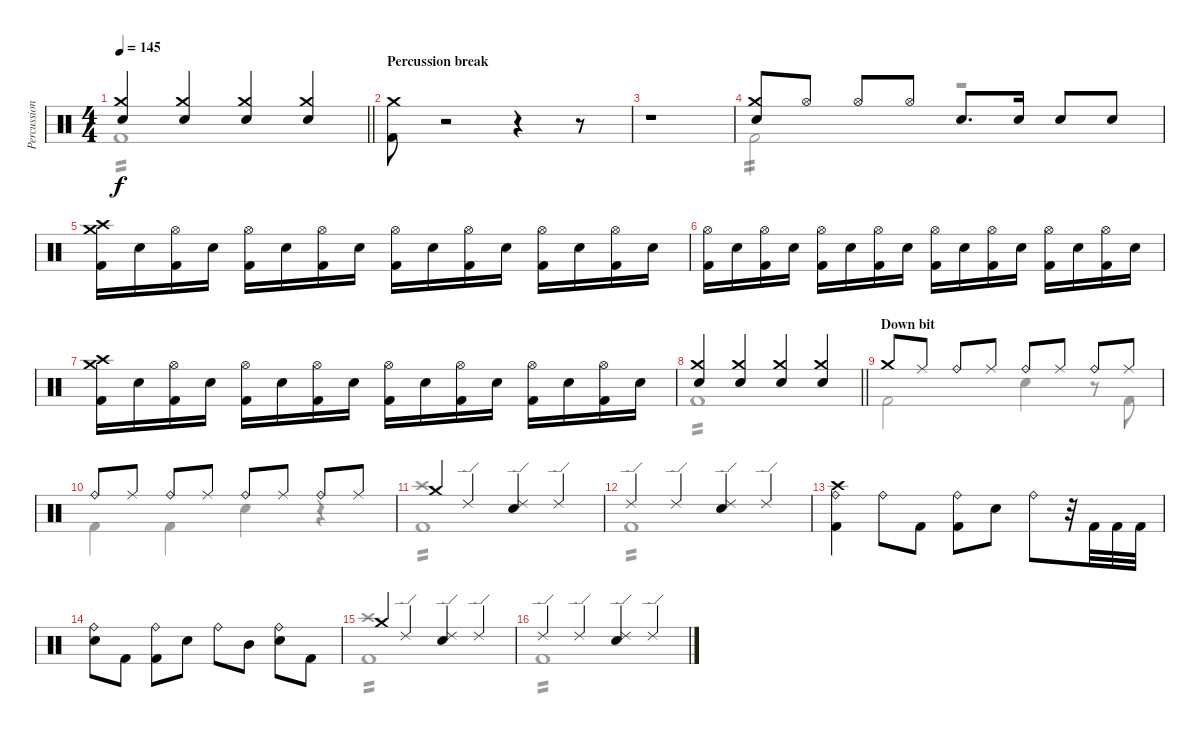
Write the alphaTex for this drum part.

\track ("Percussion" "Percussion") {instrument percussion}
\staff {score}
\articulation defaults
\voice
\ts (4 4)
\tempo 145
\clef neutral
\barLineRight lightlight
\ks c
("Crash medium (hit)" "Electric Snare (hit)").4{dy f} ("Crash medium (hit)" "Electric Snare (hit)").4 ("Crash medium (hit)" "Electric Snare (hit)").4 ("Crash medium (hit)" "Electric Snare (hit)").4 |
\section ("" "Percussion break")
("Crash medium (hit)" "Kick (hit) 2").8{volume 13} r.2{volume 0} r.4{volume 13} r.8 |
r.1 |
("Crash medium (hit)" "Electric Snare (hit)").8 "Hi-Hat (open)".8 "Hi-Hat (open)".8 "Hi-Hat (open)".8 "Electric Snare (hit)".8{d} "Electric Snare (hit)".16 "Electric Snare (hit)".8 "Electric Snare (hit)".8 |
("Crash medium (hit)" "Crash high (hit)" "Kick (hit) 2").16 "Electric Snare (hit)".16 ("Hi-Hat (open)" "Kick (hit) 2").16 "Electric Snare (hit)".16 ("Hi-Hat (open)" "Kick (hit) 2").16 "Electric Snare (hit)".16 ("Hi-Hat (open)" "Kick (hit) 2").16 "Electric Snare (hit)".16 ("Hi-Hat (open)" "Kick (hit) 2").16 "Electric Snare (hit)".16 ("Hi-Hat (open)" "Kick (hit) 2").16 "Electric Snare (hit)".16 ("Hi-Hat (open)" "Kick (hit) 2").16 "Electric Snare (hit)".16 ("Hi-Hat (open)" "Kick (hit) 2").16 "Electric Snare (hit)".16 |
("Hi-Hat (open)" "Kick (hit) 2").16 "Electric Snare (hit)".16 ("Hi-Hat (open)" "Kick (hit) 2").16 "Electric Snare (hit)".16 ("Hi-Hat (open)" "Kick (hit) 2").16 "Electric Snare (hit)".16 ("Hi-Hat (open)" "Kick (hit) 2").16 "Electric Snare (hit)".16 ("Hi-Hat (open)" "Kick (hit) 2").16 "Electric Snare (hit)".16 ("Hi-Hat (open)" "Kick (hit) 2").16 "Electric Snare (hit)".16 ("Hi-Hat (open)" "Kick (hit) 2").16 "Electric Snare (hit)".16 ("Hi-Hat (open)" "Kick (hit) 2").16 "Electric Snare (hit)".16 |
("Crash medium (hit)" "Crash high (hit)" "Kick (hit) 2").16 "Electric Snare (hit)".16 ("Hi-Hat (open)" "Kick (hit) 2").16 "Electric Snare (hit)".16 ("Hi-Hat (open)" "Kick (hit) 2").16 "Electric Snare (hit)".16 ("Hi-Hat (open)" "Kick (hit) 2").16 "Electric Snare (hit)".16 ("Hi-Hat (open)" "Kick (hit) 2").16 "Electric Snare (hit)".16 ("Hi-Hat (open)" "Kick (hit) 2").16 "Electric Snare (hit)".16 ("Hi-Hat (open)" "Kick (hit) 2").16 "Electric Snare (hit)".16 ("Hi-Hat (open)" "Kick (hit) 2").16 "Electric Snare (hit)".16 |
\barLineRight lightlight
("Crash medium (hit)" "Electric Snare (hit)").4 ("Crash medium (hit)" "Electric Snare (hit)").4 ("Crash medium (hit)" "Electric Snare (hit)").4 ("Crash medium (hit)" "Electric Snare (hit)").4 |
\section ("" "Down bit")
"Crash medium (hit)".8 "Ride (middle)".8 "Ride (bell)".8 "Ride (middle)".8 "Ride (bell)".8 "Ride (middle)".8 "Ride (bell)".8 "Ride (middle)".8 |
"Ride (bell)".8 "Ride (middle)".8 "Ride (bell)".8 "Ride (middle)".8 "Ride (bell)".8 "Ride (middle)".8 "Ride (bell)".8 "Ride (middle)".8 |
"Crash medium (hit)".4 "Ride (edge) 2".4 ("Ride (edge) 2" "Electric Snare (hit)").4 "Ride (edge) 2".4 |
"Ride (edge) 2".4 "Ride (edge) 2".4 ("Ride (edge) 2" "Electric Snare (hit)").4 "Ride (edge) 2".4 |
("Ride (bell)" "Crash high (hit)" "Kick (hit) 2").4 "Ride (bell)".8 "Kick (hit) 2".8 ("Ride (bell)" "Kick (hit) 2").8 "Electric Snare (hit)".8 "Ride (bell)".8 r.32 "Kick (hit) 2".32 "Kick (hit) 2".32 "Kick (hit) 2".32 |
("Ride (bell)" "Electric Snare (hit)").8 "Kick (hit) 2".8 ("Ride (bell)" "Kick (hit) 2").8 "Electric Snare (hit)".8 "Ride (bell)".8 "Mid Tom (hit)".8 ("Ride (bell)" "Electric Snare (hit)").8 "Kick (hit) 2".8 |
"Crash medium (hit)".4 "Ride (edge) 2".4 ("Ride (edge) 2" "Electric Snare (hit)").4 "Ride (edge) 2".4 |
"Ride (edge) 2".4 "Ride (edge) 2".4 ("Ride (edge) 2" "Electric Snare (hit)").4 "Ride (edge) 2".4
\voice
\clef neutral
\ottava regular
\simile none
\barLineRight lightlight
\ks c "Kick (hit) 2".1{tp 2 dy f}
|
|
|
"Kick (hit) 2".2{tp 2} r.2 |
|
|
|
\barLineRight lightlight "Kick (hit) 2".1{tp 2}
|
"Kick (hit) 2".2 "Electric Snare (hit)".4 r.8 "Kick (hit) 2".8 |
"Kick (hit) 2".4 "Kick (hit) 2".4 "Electric Snare (hit)".4 r.4 |
("Crash high (hit)" "Kick (hit) 2").1{tp 2} |
"Kick (hit) 2".1{tp 2} |
|
|
("Crash high (hit)" "Kick (hit) 2").1{tp 2} |
"Kick (hit) 2".1{tp 2}
